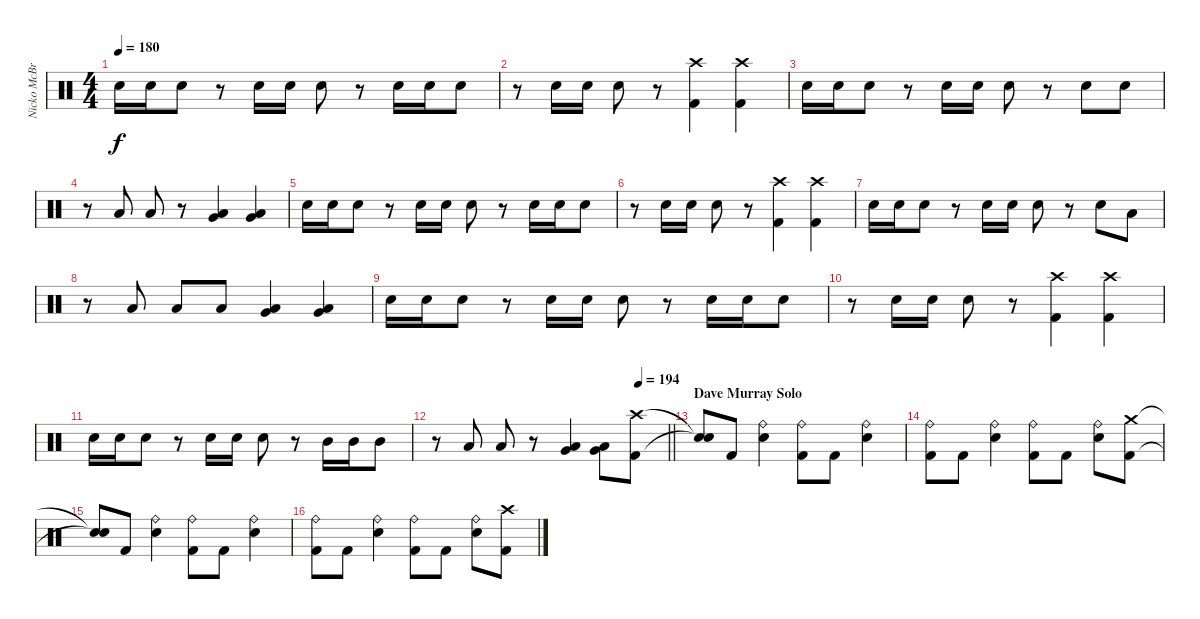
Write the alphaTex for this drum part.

\track ("Nicko McBrain" "Nicko McBr") {instrument percussion}
\staff {score}
\articulation defaults
\ts (4 4)
\tempo 180
\clef neutral
\ks c "Electric Snare (hit)".16{dy f} "Electric Snare (hit)".16 "Electric Snare (hit)".8
r.8 "Electric Snare (hit)".16 "Electric Snare (hit)".16 "Electric Snare (hit)".8 r.8 "Electric Snare (hit)".16 "Electric Snare (hit)".16 "Electric Snare (hit)".8 |
r.8 "Electric Snare (hit)".16 "Electric Snare (hit)".16 "Electric Snare (hit)".8 r.8 ("Crash high (hit)" "Kick (hit) 2").4 ("Crash high (hit)" "Kick (hit) 2").4 |
"Electric Snare (hit)".16 "Electric Snare (hit)".16 "Electric Snare (hit)".8 r.8 "Electric Snare (hit)".16 "Electric Snare (hit)".16 "Electric Snare (hit)".8 r.8 "Electric Snare (hit)".8 "Electric Snare (hit)".8 |
r.8 "Low Tom (hit)".8 "Low Tom (hit)".8 r.8 ("Very Low Tom (hit)" "Low Floor Tom (hit)").4 ("Very Low Tom (hit)" "Low Floor Tom (hit)").4 |
"Electric Snare (hit)".16 "Electric Snare (hit)".16 "Electric Snare (hit)".8 r.8 "Electric Snare (hit)".16 "Electric Snare (hit)".16 "Electric Snare (hit)".8 r.8 "Electric Snare (hit)".16 "Electric Snare (hit)".16 "Electric Snare (hit)".8 |
r.8 "Electric Snare (hit)".16 "Electric Snare (hit)".16 "Electric Snare (hit)".8 r.8 ("Crash high (hit)" "Kick (hit) 2").4 ("Crash high (hit)" "Kick (hit) 2").4 |
"Electric Snare (hit)".16 "Electric Snare (hit)".16 "Electric Snare (hit)".8 r.8 "Electric Snare (hit)".16 "Electric Snare (hit)".16 "Electric Snare (hit)".8 r.8 "Electric Snare (hit)".8 "Low Tom (hit)".8 |
r.8 "Low Tom (hit)".8 "Low Tom (hit)".8 "Low Tom (hit)".8 ("Very Low Tom (hit)" "Low Floor Tom (hit)").4 ("Very Low Tom (hit)" "Low Floor Tom (hit)").4 |
"Electric Snare (hit)".16 "Electric Snare (hit)".16 "Electric Snare (hit)".8 r.8 "Electric Snare (hit)".16 "Electric Snare (hit)".16 "Electric Snare (hit)".8 r.8 "Electric Snare (hit)".16 "Electric Snare (hit)".16 "Electric Snare (hit)".8 |
r.8 "Electric Snare (hit)".16 "Electric Snare (hit)".16 "Electric Snare (hit)".8 r.8 ("Crash high (hit)" "Kick (hit) 2").4 ("Crash high (hit)" "Kick (hit) 2").4 |
"Electric Snare (hit)".16 "Electric Snare (hit)".16 "Electric Snare (hit)".8 r.8 "Electric Snare (hit)".16 "Electric Snare (hit)".16 "Electric Snare (hit)".8 r.8 "Mid Tom (hit)".16 "Mid Tom (hit)".16 "Mid Tom (hit)".8 |
\tempo (194 0.875)
\barLineRight lightlight
r.8 "Low Tom (hit)".8 "Low Tom (hit)".8 r.8 ("Very Low Tom (hit)" "Low Floor Tom (hit)").4 ("Very Low Tom (hit)" "Low Floor Tom (hit)").8 ("Crash high (hit)" "Kick (hit) 2").8 |
\section ("" "Dave Murray Solo")
("Snare (hit)"{t} "Snare (hit)"{t}).8 "Kick (hit) 2".8 ("Ride (bell)" "Electric Snare (hit)").4 ("Ride (bell)" "Kick (hit) 2").8 "Kick (hit) 2".8 ("Ride (bell)" "Electric Snare (hit)").4 |
("Ride (bell)" "Kick (hit) 2").8 "Kick (hit) 2".8 ("Ride (bell)" "Electric Snare (hit)").4 ("Ride (bell)" "Kick (hit) 2").8 "Kick (hit) 2".8 ("Ride (bell)" "Electric Snare (hit)").8 ("Crash medium (hit)" "Kick (hit) 2").8 |
("Snare (hit)"{t} "Snare (hit)"{t}).8 "Kick (hit) 2".8 ("Ride (bell)" "Electric Snare (hit)").4 ("Ride (bell)" "Kick (hit) 2").8 "Kick (hit) 2".8 ("Ride (bell)" "Electric Snare (hit)").4 |
("Ride (bell)" "Kick (hit) 2").8 "Kick (hit) 2".8 ("Ride (bell)" "Electric Snare (hit)").4 ("Ride (bell)" "Kick (hit) 2").8 "Kick (hit) 2".8 ("Ride (bell)" "Electric Snare (hit)").8 ("Crash high (hit)" "Kick (hit) 2").8
